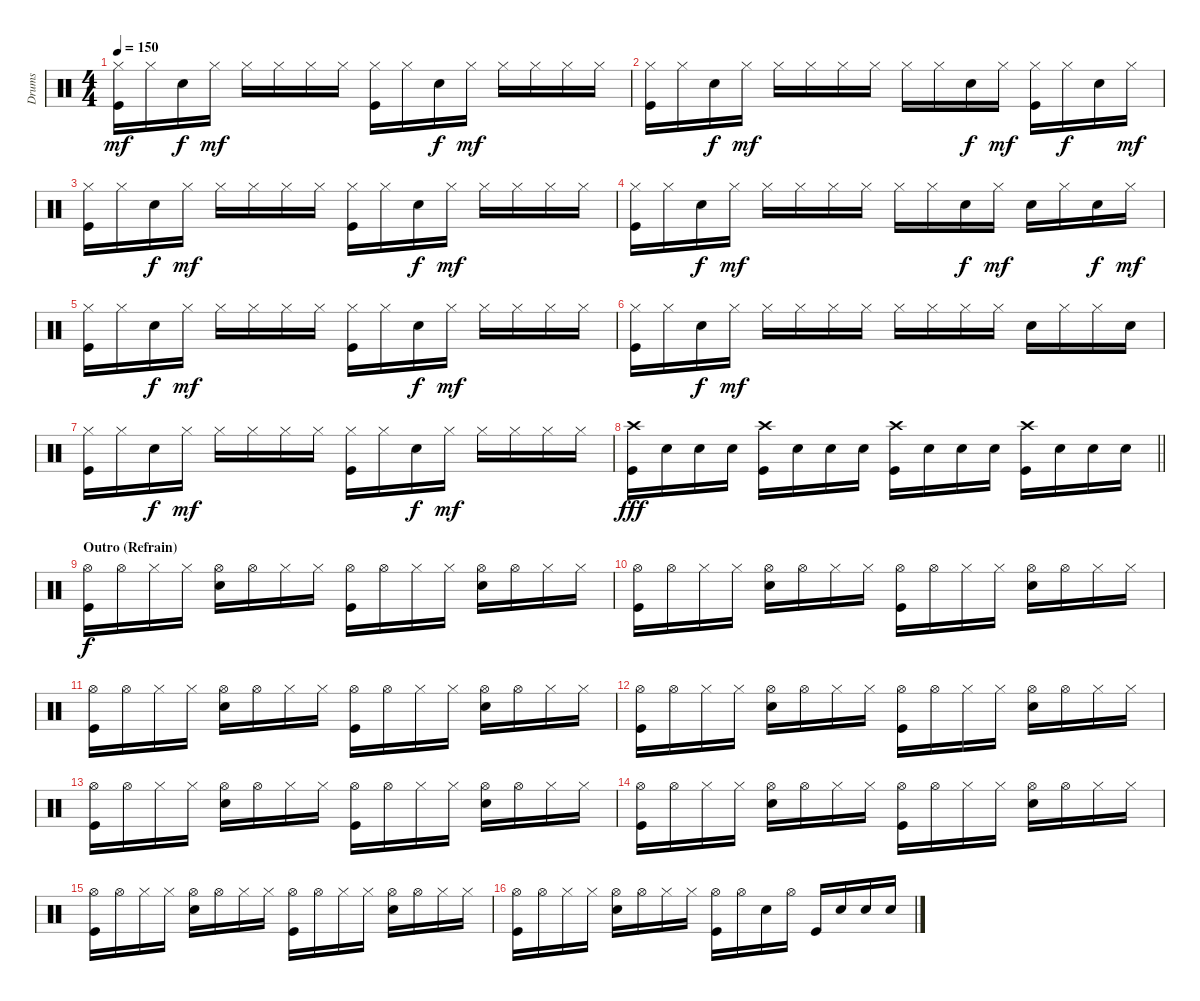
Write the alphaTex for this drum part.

\track ("Drums" "Drums") {instrument percussion}
\staff {score}
\articulation defaults
\ts (4 4)
\tempo 150
\clef neutral
\ks c
("Hi-Hat (closed)" "Kick (hit)").16{dy mf} "Hi-Hat (closed)".16 "Snare (hit) 2".16{dy f} "Hi-Hat (closed)".16{dy mf} "Hi-Hat (closed)".16 "Hi-Hat (closed)".16 "Hi-Hat (closed)".16 "Hi-Hat (closed)".16 ("Hi-Hat (closed)" "Kick (hit)").16 "Hi-Hat (closed)".16 "Snare (hit) 2".16{dy f} "Hi-Hat (closed)".16{dy mf} "Hi-Hat (closed)".16 "Hi-Hat (closed)".16 "Hi-Hat (closed)".16 "Hi-Hat (closed)".16 |
("Hi-Hat (closed)" "Kick (hit)").16 "Hi-Hat (closed)".16 "Snare (hit) 2".16{dy f} "Hi-Hat (closed)".16{dy mf} "Hi-Hat (closed)".16 "Hi-Hat (closed)".16 "Hi-Hat (closed)".16 "Hi-Hat (closed)".16 "Hi-Hat (closed)".16 "Hi-Hat (closed)".16 "Snare (hit) 2".16{dy f} "Hi-Hat (closed)".16{dy mf} ("Hi-Hat (closed)" "Kick (hit)").16 "Hi-Hat (closed)".16{dy f} "Snare (hit) 2".16 "Hi-Hat (closed)".16{dy mf} |
("Hi-Hat (closed)" "Kick (hit)").16 "Hi-Hat (closed)".16 "Snare (hit) 2".16{dy f} "Hi-Hat (closed)".16{dy mf} "Hi-Hat (closed)".16 "Hi-Hat (closed)".16 "Hi-Hat (closed)".16 "Hi-Hat (closed)".16 ("Hi-Hat (closed)" "Kick (hit)").16 "Hi-Hat (closed)".16 "Snare (hit) 2".16{dy f} "Hi-Hat (closed)".16{dy mf} "Hi-Hat (closed)".16 "Hi-Hat (closed)".16 "Hi-Hat (closed)".16 "Hi-Hat (closed)".16 |
("Hi-Hat (closed)" "Kick (hit)").16 "Hi-Hat (closed)".16 "Snare (hit) 2".16{dy f} "Hi-Hat (closed)".16{dy mf} "Hi-Hat (closed)".16 "Hi-Hat (closed)".16 "Hi-Hat (closed)".16 "Hi-Hat (closed)".16 "Hi-Hat (closed)".16 "Hi-Hat (closed)".16 "Snare (hit) 2".16{dy f} "Hi-Hat (closed)".16{dy mf} "Snare (hit) 2".16 "Hi-Hat (closed)".16 "Snare (hit) 2".16{dy f} "Hi-Hat (closed)".16{dy mf} |
("Hi-Hat (closed)" "Kick (hit)").16 "Hi-Hat (closed)".16 "Snare (hit) 2".16{dy f} "Hi-Hat (closed)".16{dy mf} "Hi-Hat (closed)".16 "Hi-Hat (closed)".16 "Hi-Hat (closed)".16 "Hi-Hat (closed)".16 ("Hi-Hat (closed)" "Kick (hit)").16 "Hi-Hat (closed)".16 "Snare (hit) 2".16{dy f} "Hi-Hat (closed)".16{dy mf} "Hi-Hat (closed)".16 "Hi-Hat (closed)".16 "Hi-Hat (closed)".16 "Hi-Hat (closed)".16 |
("Hi-Hat (closed)" "Kick (hit)").16 "Hi-Hat (closed)".16 "Snare (hit) 2".16{dy f} "Hi-Hat (closed)".16{dy mf} "Hi-Hat (closed)".16 "Hi-Hat (closed)".16 "Hi-Hat (closed)".16 "Hi-Hat (closed)".16 "Hi-Hat (closed)".16 "Hi-Hat (closed)".16 "Hi-Hat (closed)".16 "Hi-Hat (closed)".16 "Snare (hit) 2".16 "Hi-Hat (closed)".16 "Hi-Hat (closed)".16 "Snare (hit) 2".16 |
("Hi-Hat (closed)" "Kick (hit)").16 "Hi-Hat (closed)".16 "Snare (hit) 2".16{dy f} "Hi-Hat (closed)".16{dy mf} "Hi-Hat (closed)".16 "Hi-Hat (closed)".16 "Hi-Hat (closed)".16 "Hi-Hat (closed)".16 ("Hi-Hat (closed)" "Kick (hit)").16 "Hi-Hat (closed)".16 "Snare (hit) 2".16{dy f} "Hi-Hat (closed)".16{dy mf} "Hi-Hat (closed)".16 "Hi-Hat (closed)".16 "Hi-Hat (closed)".16 "Hi-Hat (closed)".16 |
\barLineRight lightlight
("Crash high (hit)" "Kick (hit)").16{dy fff} "Snare (hit) 2".16 "Snare (hit) 2".16 "Snare (hit) 2".16 ("Crash high (hit)" "Kick (hit)").16 "Snare (hit) 2".16 "Snare (hit) 2".16 "Snare (hit) 2".16 ("Crash high (hit)" "Kick (hit)").16 "Snare (hit) 2".16 "Snare (hit) 2".16 "Snare (hit) 2".16 ("Crash high (hit)" "Kick (hit)").16 "Snare (hit) 2".16 "Snare (hit) 2".16 "Snare (hit) 2".16 |
\section ("" "Outro (Refrain)")
("Hi-Hat (open)" "Kick (hit)").16{dy f} "Hi-Hat (open)".16 "Hi-Hat (closed)".16 "Hi-Hat (closed)".16 ("Hi-Hat (open)" "Snare (hit) 2").16 "Hi-Hat (open)".16 "Hi-Hat (closed)".16 "Hi-Hat (closed)".16 ("Hi-Hat (open)" "Kick (hit)").16 "Hi-Hat (open)".16 "Hi-Hat (closed)".16 "Hi-Hat (closed)".16 ("Hi-Hat (open)" "Snare (hit) 2").16 "Hi-Hat (open)".16 "Hi-Hat (closed)".16 "Hi-Hat (closed)".16 |
("Hi-Hat (open)" "Kick (hit)").16 "Hi-Hat (open)".16 "Hi-Hat (closed)".16 "Hi-Hat (closed)".16 ("Hi-Hat (open)" "Snare (hit) 2").16 "Hi-Hat (open)".16 "Hi-Hat (closed)".16 "Hi-Hat (closed)".16 ("Hi-Hat (open)" "Kick (hit)").16 "Hi-Hat (open)".16 "Hi-Hat (closed)".16 "Hi-Hat (closed)".16 ("Hi-Hat (open)" "Snare (hit) 2").16 "Hi-Hat (open)".16 "Hi-Hat (closed)".16 "Hi-Hat (closed)".16 |
("Hi-Hat (open)" "Kick (hit)").16 "Hi-Hat (open)".16 "Hi-Hat (closed)".16 "Hi-Hat (closed)".16 ("Hi-Hat (open)" "Snare (hit) 2").16 "Hi-Hat (open)".16 "Hi-Hat (closed)".16 "Hi-Hat (closed)".16 ("Hi-Hat (open)" "Kick (hit)").16 "Hi-Hat (open)".16 "Hi-Hat (closed)".16 "Hi-Hat (closed)".16 ("Hi-Hat (open)" "Snare (hit) 2").16 "Hi-Hat (open)".16 "Hi-Hat (closed)".16 "Hi-Hat (closed)".16 |
("Hi-Hat (open)" "Kick (hit)").16 "Hi-Hat (open)".16 "Hi-Hat (closed)".16 "Hi-Hat (closed)".16 ("Hi-Hat (open)" "Snare (hit) 2").16 "Hi-Hat (open)".16 "Hi-Hat (closed)".16 "Hi-Hat (closed)".16 ("Hi-Hat (open)" "Kick (hit)").16 "Hi-Hat (open)".16 "Hi-Hat (closed)".16 "Hi-Hat (closed)".16 ("Hi-Hat (open)" "Snare (hit) 2").16 "Hi-Hat (open)".16 "Hi-Hat (closed)".16 "Hi-Hat (closed)".16 |
("Hi-Hat (open)" "Kick (hit)").16 "Hi-Hat (open)".16 "Hi-Hat (closed)".16 "Hi-Hat (closed)".16 ("Hi-Hat (open)" "Snare (hit) 2").16 "Hi-Hat (open)".16 "Hi-Hat (closed)".16 "Hi-Hat (closed)".16 ("Hi-Hat (open)" "Kick (hit)").16 "Hi-Hat (open)".16 "Hi-Hat (closed)".16 "Hi-Hat (closed)".16 ("Hi-Hat (open)" "Snare (hit) 2").16 "Hi-Hat (open)".16 "Hi-Hat (closed)".16 "Hi-Hat (closed)".16 |
("Hi-Hat (open)" "Kick (hit)").16 "Hi-Hat (open)".16 "Hi-Hat (closed)".16 "Hi-Hat (closed)".16 ("Hi-Hat (open)" "Snare (hit) 2").16 "Hi-Hat (open)".16 "Hi-Hat (closed)".16 "Hi-Hat (closed)".16 ("Hi-Hat (open)" "Kick (hit)").16 "Hi-Hat (open)".16 "Hi-Hat (closed)".16 "Hi-Hat (closed)".16 ("Hi-Hat (open)" "Snare (hit) 2").16 "Hi-Hat (open)".16 "Hi-Hat (closed)".16 "Hi-Hat (closed)".16 |
("Hi-Hat (open)" "Kick (hit)").16 "Hi-Hat (open)".16 "Hi-Hat (closed)".16 "Hi-Hat (closed)".16 ("Hi-Hat (open)" "Snare (hit) 2").16 "Hi-Hat (open)".16 "Hi-Hat (closed)".16 "Hi-Hat (closed)".16 ("Hi-Hat (open)" "Kick (hit)").16 "Hi-Hat (open)".16 "Hi-Hat (closed)".16 "Hi-Hat (closed)".16 ("Hi-Hat (open)" "Snare (hit) 2").16 "Hi-Hat (open)".16 "Hi-Hat (closed)".16 "Hi-Hat (closed)".16 |
("Hi-Hat (open)" "Kick (hit)").16 "Hi-Hat (open)".16 "Hi-Hat (closed)".16 "Hi-Hat (closed)".16 ("Hi-Hat (open)" "Snare (hit) 2").16 "Hi-Hat (open)".16 "Hi-Hat (closed)".16 "Hi-Hat (closed)".16 ("Hi-Hat (open)" "Kick (hit)").16 "Hi-Hat (open)".16 "Snare (hit) 2".16 "Hi-Hat (open)".16 "Kick (hit)".16 "Snare (hit) 2".16 "Snare (hit) 2".16 "Snare (hit) 2".16
